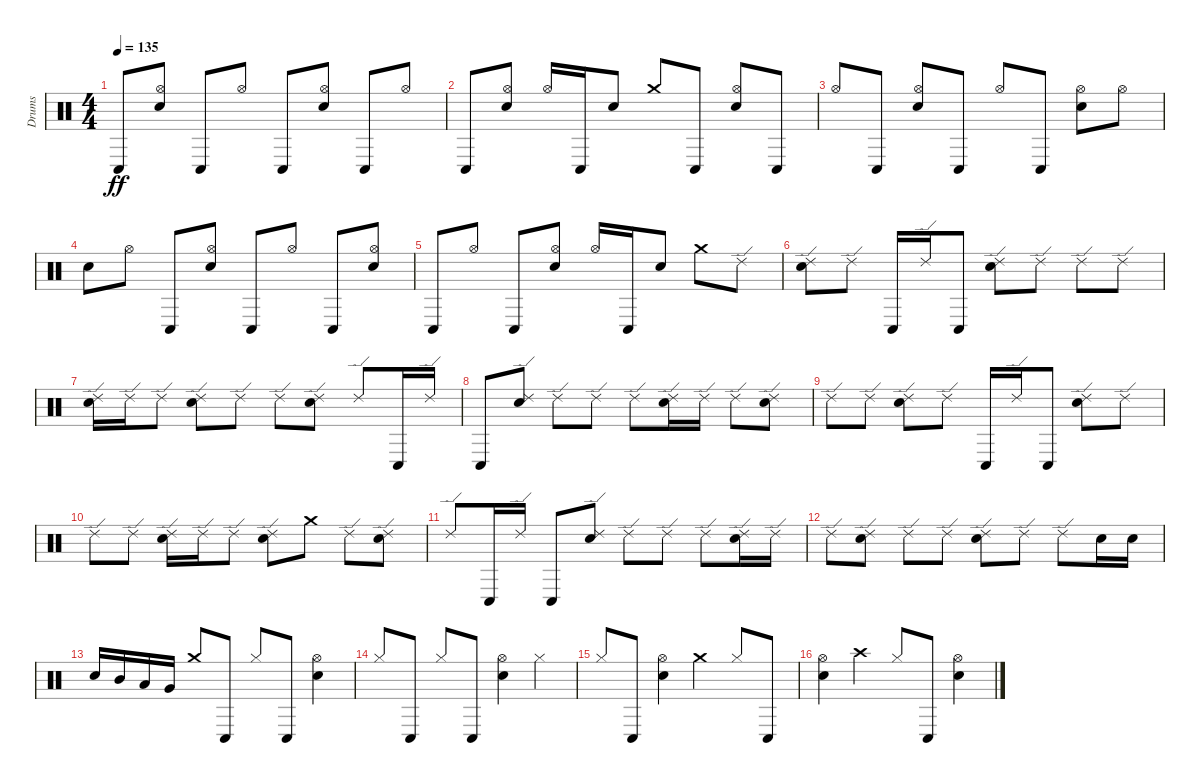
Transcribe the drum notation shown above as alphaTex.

\track ("Drums" "Drums") {instrument percussion}
\staff {score}
\articulation defaults
\ts (4 4)
\tempo 135
\clef neutral
\ks c "Conga low (hit)".8{dy ff}
("Electric Snare (hit)" "Hi-Hat (open)").8 "Conga low (hit)".8 "Hi-Hat (open)".8 "Conga low (hit)".8 ("Electric Snare (hit)" "Hi-Hat (open)").8 "Conga low (hit)".8 "Hi-Hat (open)".8 |
"Conga low (hit)".8 ("Electric Snare (hit)" "Hi-Hat (open)").8 "Hi-Hat (open)".16 "Conga low (hit)".16 "Electric Snare (hit)".8 "Crash medium (hit)".8 "Conga low (hit)".8 ("Electric Snare (hit)" "Hi-Hat (open)").8 "Conga low (hit)".8 |
"Hi-Hat (open)".8 "Conga low (hit)".8 ("Electric Snare (hit)" "Hi-Hat (open)").8 "Conga low (hit)".8 "Hi-Hat (open)".8 "Conga low (hit)".8 ("Electric Snare (hit)" "Hi-Hat (open)").8 "Hi-Hat (open)".8 |
"Electric Snare (hit)".8 "Hi-Hat (open)".8 "Conga low (hit)".8 ("Electric Snare (hit)" "Hi-Hat (open)").8 "Conga low (hit)".8 "Hi-Hat (open)".8 "Conga low (hit)".8 ("Electric Snare (hit)" "Hi-Hat (open)").8 |
"Conga low (hit)".8 "Hi-Hat (open)".8 "Conga low (hit)".8 ("Electric Snare (hit)" "Hi-Hat (open)").8 "Hi-Hat (open)".16 "Conga low (hit)".16 "Electric Snare (hit)".8 "Crash medium (hit)".8 "Ride (edge) 2".8 |
("Electric Snare (hit)" "Ride (edge) 2").8 "Ride (edge) 2".8 "Conga low (hit)".16 "Ride (edge) 2".16 "Conga low (hit)".8 ("Electric Snare (hit)" "Ride (edge) 2").8 "Ride (edge) 2".8 "Ride (edge) 2".8 "Ride (edge) 2".8 |
("Electric Snare (hit)" "Ride (edge) 2").16 "Ride (edge) 2".16 "Ride (edge) 2".8 ("Electric Snare (hit)" "Ride (edge) 2").8 "Ride (edge) 2".8 "Ride (edge) 2".8 ("Electric Snare (hit)" "Ride (edge) 2").8 "Ride (edge) 2".8 "Conga low (hit)".16 "Ride (edge) 2".16 |
"Conga low (hit)".8 ("Electric Snare (hit)" "Ride (edge) 2").8 "Ride (edge) 2".8 "Ride (edge) 2".8 "Ride (edge) 2".8 ("Electric Snare (hit)" "Ride (edge) 2").16 "Ride (edge) 2".16 "Ride (edge) 2".8 ("Electric Snare (hit)" "Ride (edge) 2").8 |
"Ride (edge) 2".8 "Ride (edge) 2".8 ("Electric Snare (hit)" "Ride (edge) 2").8 "Ride (edge) 2".8 "Conga low (hit)".16 "Ride (edge) 2".16 "Conga low (hit)".8 ("Electric Snare (hit)" "Ride (edge) 2").8 "Ride (edge) 2".8 |
"Ride (edge) 2".8 "Ride (edge) 2".8 ("Electric Snare (hit)" "Ride (edge) 2").16 "Ride (edge) 2".16 "Ride (edge) 2".8 ("Electric Snare (hit)" "Ride (edge) 2").8 "Crash medium (hit)".8 "Ride (edge) 2".8 ("Electric Snare (hit)" "Ride (edge) 2").8 |
"Ride (edge) 2".8 "Conga low (hit)".16 "Ride (edge) 2".16 "Conga low (hit)".8 ("Electric Snare (hit)" "Ride (edge) 2").8 "Ride (edge) 2".8 "Ride (edge) 2".8 "Ride (edge) 2".8 ("Electric Snare (hit)" "Ride (edge) 2").16 "Ride (edge) 2".16 |
"Ride (edge) 2".8 ("Electric Snare (hit)" "Ride (edge) 2").8 "Ride (edge) 2".8 "Ride (edge) 2".8 ("Electric Snare (hit)" "Ride (edge) 2").8 "Ride (edge) 2".8 "Ride (edge) 2".8 "Electric Snare (hit)".16 "Electric Snare (hit)".16 |
"Electric Snare (hit)".16 "Mid Tom (hit)".16 "Low Tom (hit)".16 "Very Low Tom (hit)".16 "Crash medium (hit)".8 "Conga low (hit)".8 "Hi-Hat (closed)".8 "Conga low (hit)".8 ("Electric Snare (hit)" "Hi-Hat (open)").4 |
"Hi-Hat (closed)".8 "Conga low (hit)".8 "Hi-Hat (closed)".8 "Conga low (hit)".8 ("Electric Snare (hit)" "Hi-Hat (open)").4 "Hi-Hat (closed)".4 |
"Hi-Hat (closed)".8 "Conga low (hit)".8 ("Electric Snare (hit)" "Hi-Hat (open)").4 "Crash medium (hit)".4 "Hi-Hat (closed)".8 "Conga low (hit)".8 |
("Electric Snare (hit)" "Hi-Hat (open)").4 "Crash high (hit)".4 "Hi-Hat (closed)".8 "Conga low (hit)".8 ("Electric Snare (hit)" "Hi-Hat (open)").4
